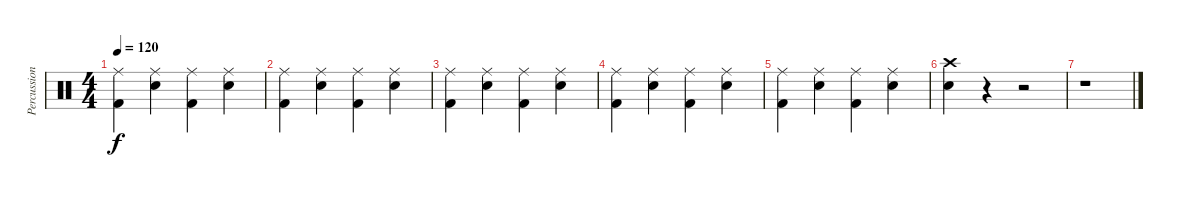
\track ("Percussions" "Percussion") {instrument percussion}
\staff {score}
\articulation defaults
\ts (4 4)
\tempo 120
\clef neutral
\ks c
("Ride (middle)" "Kick (hit) 2").4{dy f} ("Ride (middle)" "Electric Snare (hit)").4 ("Ride (middle)" "Kick (hit) 2").4 ("Ride (middle)" "Electric Snare (hit)").4 |
("Ride (middle)" "Kick (hit) 2").4 ("Ride (middle)" "Electric Snare (hit)").4 ("Ride (middle)" "Kick (hit) 2").4 ("Ride (middle)" "Electric Snare (hit)").4 |
("Ride (middle)" "Kick (hit) 2").4 ("Ride (middle)" "Electric Snare (hit)").4 ("Ride (middle)" "Kick (hit) 2").4 ("Ride (middle)" "Electric Snare (hit)").4 |
("Ride (middle)" "Kick (hit) 2").4 ("Ride (middle)" "Electric Snare (hit)").4 ("Ride (middle)" "Kick (hit) 2").4 ("Ride (middle)" "Electric Snare (hit)").4 |
("Ride (middle)" "Kick (hit) 2").4 ("Ride (middle)" "Electric Snare (hit)").4 ("Ride (middle)" "Kick (hit) 2").4 ("Ride (middle)" "Electric Snare (hit)").4 |
("Crash high (hit)" "Electric Snare (hit)").4 r.4 r.2 |
r.1
